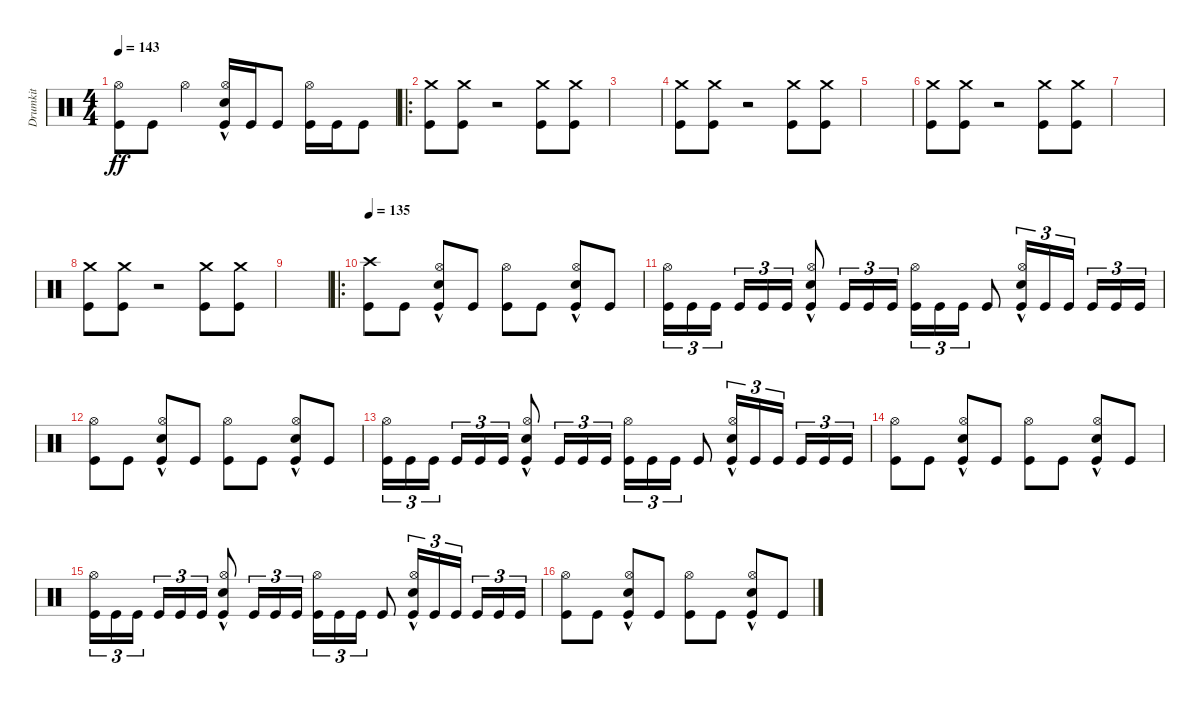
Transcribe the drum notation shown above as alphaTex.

\track ("Drumkit" "Drumkit") {instrument percussion}
\staff {score}
\articulation defaults
\ts (4 4)
\tempo 143
\clef neutral
\ks c
("Kick (hit)" "Hi-Hat (open)").8{dy ff} "Kick (hit)".8 "Hi-Hat (open)".4 ("Snare (hit) 2"{hac} "Hi-Hat (open)" "Kick (hit)").16 "Kick (hit)".16 "Kick (hit)".8 ("Hi-Hat (open)" "Kick (hit)").16 "Kick (hit)".16 "Kick (hit)".8 |
\ro
("Kick (hit)" "Crash medium (hit)").8 ("Crash medium (hit)" "Kick (hit)").8 r.2 ("Kick (hit)" "Crash medium (hit)").8 ("Kick (hit)" "Crash medium (hit)").8 |
|
("Kick (hit)" "Crash medium (hit)").8 ("Crash medium (hit)" "Kick (hit)").8 r.2 ("Kick (hit)" "Crash medium (hit)").8 ("Kick (hit)" "Crash medium (hit)").8 |
|
("Kick (hit)" "Crash medium (hit)").8 ("Crash medium (hit)" "Kick (hit)").8 r.2 ("Kick (hit)" "Crash medium (hit)").8 ("Kick (hit)" "Crash medium (hit)").8 |
|
("Kick (hit)" "Crash medium (hit)").8 ("Crash medium (hit)" "Kick (hit)").8 r.2 ("Kick (hit)" "Crash medium (hit)").8 ("Kick (hit)" "Crash medium (hit)").8 |
|
\ro
\tempo 135
("Kick (hit)" "Crash high (hit)").8 "Kick (hit)".8 ("Snare (hit) 2"{hac} "Hi-Hat (open)" "Kick (hit)").8 "Kick (hit)".8 ("Kick (hit)" "Hi-Hat (open)").8 "Kick (hit)".8 ("Snare (hit) 2"{hac} "Hi-Hat (open)" "Kick (hit)").8 "Kick (hit)".8 |
("Kick (hit)" "Hi-Hat (open)").16{tu (3 2)} "Kick (hit)".16{tu (3 2)} "Kick (hit)".16{tu (3 2) beam splitsecondary} "Kick (hit)".16{tu (3 2)} "Kick (hit)".16{tu (3 2)} "Kick (hit)".16{tu (3 2)} ("Kick (hit)" "Hi-Hat (open)" "Snare (hit) 2"{hac}).8 "Kick (hit)".16{tu (3 2)} "Kick (hit)".16{tu (3 2)} "Kick (hit)".16{tu (3 2)} ("Kick (hit)" "Hi-Hat (open)").16{tu (3 2)} "Kick (hit)".16{tu (3 2)} "Kick (hit)".16{tu (3 2)} "Kick (hit)".8 ("Kick (hit)" "Hi-Hat (open)" "Snare (hit) 2"{hac}).16{tu (3 2)} "Kick (hit)".16{tu (3 2)} "Kick (hit)".16{tu (3 2) beam splitsecondary} "Kick (hit)".16{tu (3 2)} "Kick (hit)".16{tu (3 2)} "Kick (hit)".16{tu (3 2)} |
("Kick (hit)" "Hi-Hat (open)").8 "Kick (hit)".8 ("Snare (hit) 2"{hac} "Hi-Hat (open)" "Kick (hit)").8 "Kick (hit)".8 ("Kick (hit)" "Hi-Hat (open)").8 "Kick (hit)".8 ("Snare (hit) 2"{hac} "Hi-Hat (open)" "Kick (hit)").8 "Kick (hit)".8 |
("Kick (hit)" "Hi-Hat (open)").16{tu (3 2)} "Kick (hit)".16{tu (3 2)} "Kick (hit)".16{tu (3 2) beam splitsecondary} "Kick (hit)".16{tu (3 2)} "Kick (hit)".16{tu (3 2)} "Kick (hit)".16{tu (3 2)} ("Kick (hit)" "Hi-Hat (open)" "Snare (hit) 2"{hac}).8 "Kick (hit)".16{tu (3 2)} "Kick (hit)".16{tu (3 2)} "Kick (hit)".16{tu (3 2)} ("Kick (hit)" "Hi-Hat (open)").16{tu (3 2)} "Kick (hit)".16{tu (3 2)} "Kick (hit)".16{tu (3 2)} "Kick (hit)".8 ("Kick (hit)" "Hi-Hat (open)" "Snare (hit) 2"{hac}).16{tu (3 2)} "Kick (hit)".16{tu (3 2)} "Kick (hit)".16{tu (3 2) beam splitsecondary} "Kick (hit)".16{tu (3 2)} "Kick (hit)".16{tu (3 2)} "Kick (hit)".16{tu (3 2)} |
("Kick (hit)" "Hi-Hat (open)").8 "Kick (hit)".8 ("Snare (hit) 2"{hac} "Hi-Hat (open)" "Kick (hit)").8 "Kick (hit)".8 ("Kick (hit)" "Hi-Hat (open)").8 "Kick (hit)".8 ("Snare (hit) 2"{hac} "Hi-Hat (open)" "Kick (hit)").8 "Kick (hit)".8 |
("Kick (hit)" "Hi-Hat (open)").16{tu (3 2)} "Kick (hit)".16{tu (3 2)} "Kick (hit)".16{tu (3 2) beam splitsecondary} "Kick (hit)".16{tu (3 2)} "Kick (hit)".16{tu (3 2)} "Kick (hit)".16{tu (3 2)} ("Kick (hit)" "Hi-Hat (open)" "Snare (hit) 2"{hac}).8 "Kick (hit)".16{tu (3 2)} "Kick (hit)".16{tu (3 2)} "Kick (hit)".16{tu (3 2)} ("Kick (hit)" "Hi-Hat (open)").16{tu (3 2)} "Kick (hit)".16{tu (3 2)} "Kick (hit)".16{tu (3 2)} "Kick (hit)".8 ("Kick (hit)" "Hi-Hat (open)" "Snare (hit) 2"{hac}).16{tu (3 2)} "Kick (hit)".16{tu (3 2)} "Kick (hit)".16{tu (3 2) beam splitsecondary} "Kick (hit)".16{tu (3 2)} "Kick (hit)".16{tu (3 2)} "Kick (hit)".16{tu (3 2)} |
("Kick (hit)" "Hi-Hat (open)").8 "Kick (hit)".8 ("Snare (hit) 2"{hac} "Hi-Hat (open)" "Kick (hit)").8 "Kick (hit)".8 ("Kick (hit)" "Hi-Hat (open)").8 "Kick (hit)".8 ("Snare (hit) 2"{hac} "Hi-Hat (open)" "Kick (hit)").8 "Kick (hit)".8
